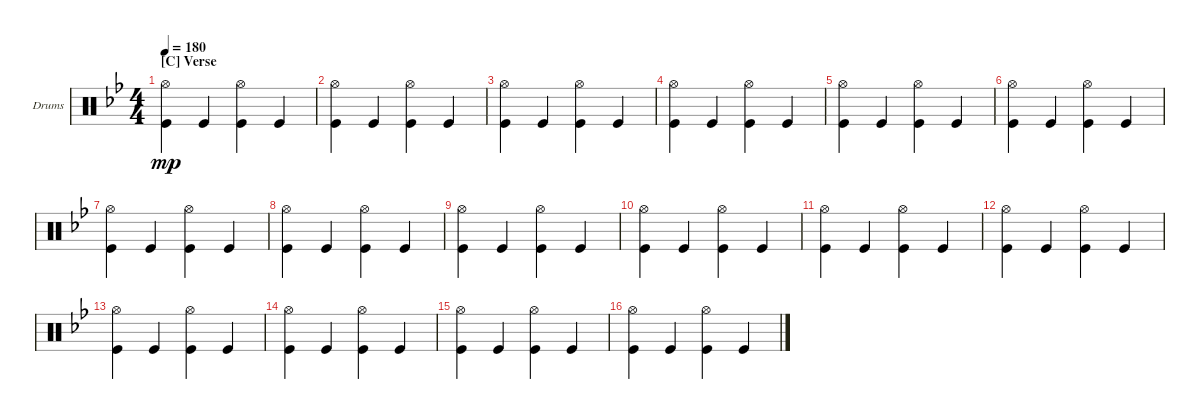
\defaultSystemsLayout 4
\bracketExtendMode groupsimilarinstruments
\firstSystemTrackNameOrientation horizontal
\otherSystemsTrackNameOrientation horizontal
\track ("Drumkit" "Drums") {instrument percussion}
\staff {score}
\articulation defaults
\ts (4 4)
\section ("C" "Verse")
\tempo 180
\clef neutral
\ks bb
("Hi-Hat (open)" "Kick (hit)").4{dy mp} "Kick (hit)".4 ("Kick (hit)" "Hi-Hat (open)").4 "Kick (hit)".4 |
("Hi-Hat (open)" "Kick (hit)").4 "Kick (hit)".4 ("Kick (hit)" "Hi-Hat (open)").4 "Kick (hit)".4 |
("Hi-Hat (open)" "Kick (hit)").4 "Kick (hit)".4 ("Kick (hit)" "Hi-Hat (open)").4 "Kick (hit)".4 |
("Hi-Hat (open)" "Kick (hit)").4 "Kick (hit)".4 ("Kick (hit)" "Hi-Hat (open)").4 "Kick (hit)".4 |
("Hi-Hat (open)" "Kick (hit)").4 "Kick (hit)".4 ("Kick (hit)" "Hi-Hat (open)").4 "Kick (hit)".4 |
("Hi-Hat (open)" "Kick (hit)").4 "Kick (hit)".4 ("Kick (hit)" "Hi-Hat (open)").4 "Kick (hit)".4 |
("Hi-Hat (open)" "Kick (hit)").4 "Kick (hit)".4 ("Kick (hit)" "Hi-Hat (open)").4 "Kick (hit)".4 |
("Hi-Hat (open)" "Kick (hit)").4 "Kick (hit)".4 ("Kick (hit)" "Hi-Hat (open)").4 "Kick (hit)".4 |
("Hi-Hat (open)" "Kick (hit)").4 "Kick (hit)".4 ("Kick (hit)" "Hi-Hat (open)").4 "Kick (hit)".4 |
("Hi-Hat (open)" "Kick (hit)").4 "Kick (hit)".4 ("Kick (hit)" "Hi-Hat (open)").4 "Kick (hit)".4 |
("Hi-Hat (open)" "Kick (hit)").4 "Kick (hit)".4 ("Kick (hit)" "Hi-Hat (open)").4 "Kick (hit)".4 |
("Hi-Hat (open)" "Kick (hit)").4 "Kick (hit)".4 ("Kick (hit)" "Hi-Hat (open)").4 "Kick (hit)".4 |
("Hi-Hat (open)" "Kick (hit)").4 "Kick (hit)".4 ("Kick (hit)" "Hi-Hat (open)").4 "Kick (hit)".4 |
("Hi-Hat (open)" "Kick (hit)").4 "Kick (hit)".4 ("Kick (hit)" "Hi-Hat (open)").4 "Kick (hit)".4 |
("Hi-Hat (open)" "Kick (hit)").4 "Kick (hit)".4 ("Kick (hit)" "Hi-Hat (open)").4 "Kick (hit)".4 |
("Hi-Hat (open)" "Kick (hit)").4 "Kick (hit)".4 ("Kick (hit)" "Hi-Hat (open)").4 "Kick (hit)".4
